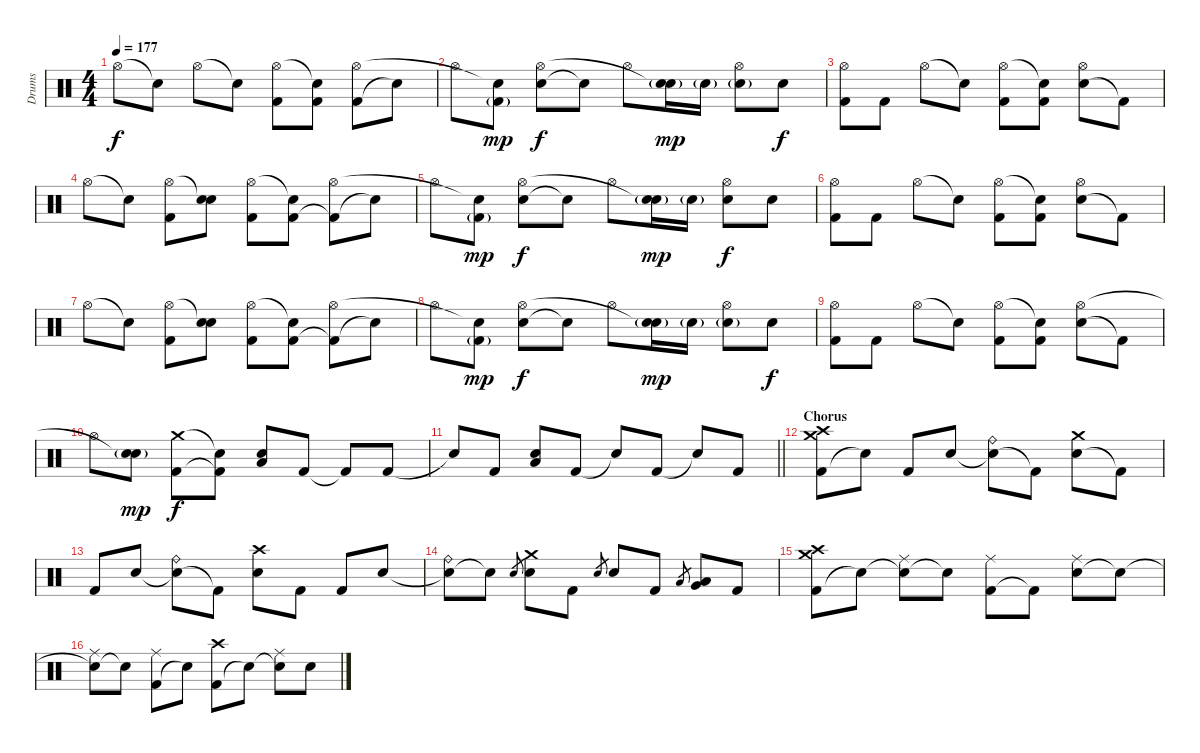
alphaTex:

\track ("Drums" "Drums") {instrument percussion}
\staff {score}
\articulation defaults
\ts (4 4)
\tempo 177
\clef neutral
\ks c "Hi-Hat (open)".8{dy f} "Snare (hit)"{t}.8 "Hi-Hat (open)".8 "Snare (hit)"{t}.8
("Kick (hit) 2" "Hi-Hat (open)").8 ("Kick (hit) 2" "Snare (hit)"{t}).8 ("Kick (hit) 2" "Hi-Hat (open)").8 "Snare (hit)"{t}.8 |
"Hi-Hat (open)".8 ("Kick (hit) 2"{g} "Snare (hit)"{t}).8{dy mp} ("Electric Snare (hit)" "Hi-Hat (open)").8{dy f} "Snare (hit)"{t}.8 "Hi-Hat (open)".8 ("Electric Snare (hit)"{g} "Snare (hit)"{t}).16{dy mp} "Electric Snare (hit)"{g}.16 ("Electric Snare (hit)"{g} "Hi-Hat (open)").8 "Electric Snare (hit)".8{dy f} |
("Kick (hit) 2" "Hi-Hat (open)").8 "Kick (hit) 2".8 "Hi-Hat (open)".8 "Snare (hit)"{t}.8 ("Kick (hit) 2" "Hi-Hat (open)").8 ("Kick (hit) 2" "Snare (hit)"{t}).8 ("Electric Snare (hit)" "Hi-Hat (open)").8 "Kick (hit) 2"{t}.8 |
"Hi-Hat (open)".8 "Snare (hit)"{t}.8 ("Kick (hit) 2" "Hi-Hat (open)").8 ("Electric Snare (hit)" "Snare (hit)"{t}).8 ("Kick (hit) 2" "Hi-Hat (open)").8 ("Kick (hit) 2" "Snare (hit)"{t}).8 ("Kick (hit) 2"{t} "Hi-Hat (open)").8 "Snare (hit)"{t}.8 |
"Hi-Hat (open)".8 ("Kick (hit) 2"{g} "Snare (hit)"{t}).8{dy mp} ("Electric Snare (hit)" "Hi-Hat (open)").8{dy f} "Snare (hit)"{t}.8 "Hi-Hat (open)".8 ("Electric Snare (hit)"{g} "Snare (hit)"{t}).16{dy mp} "Electric Snare (hit)"{g}.16 ("Electric Snare (hit)" "Hi-Hat (open)").8{dy f} "Electric Snare (hit)".8 |
("Kick (hit) 2" "Hi-Hat (open)").8 "Kick (hit) 2".8 "Hi-Hat (open)".8 "Snare (hit)"{t}.8 ("Kick (hit) 2" "Hi-Hat (open)").8 ("Kick (hit) 2" "Snare (hit)"{t}).8 ("Electric Snare (hit)" "Hi-Hat (open)").8 "Kick (hit) 2"{t}.8 |
"Hi-Hat (open)".8 "Snare (hit)"{t}.8 ("Kick (hit) 2" "Hi-Hat (open)").8 ("Electric Snare (hit)" "Snare (hit)"{t}).8 ("Kick (hit) 2" "Hi-Hat (open)").8 ("Kick (hit) 2" "Snare (hit)"{t}).8 ("Kick (hit) 2"{t} "Hi-Hat (open)").8 "Snare (hit)"{t}.8 |
"Hi-Hat (open)".8 ("Kick (hit) 2"{g} "Snare (hit)"{t}).8{dy mp} ("Electric Snare (hit)" "Hi-Hat (open)").8{dy f} "Snare (hit)"{t}.8 "Hi-Hat (open)".8 ("Electric Snare (hit)"{g} "Snare (hit)"{t}).16{dy mp} "Electric Snare (hit)"{g}.16 ("Electric Snare (hit)"{g} "Hi-Hat (open)").8 "Electric Snare (hit)".8{dy f} |
("Kick (hit) 2" "Hi-Hat (open)").8 "Kick (hit) 2".8 "Hi-Hat (open)".8 "Snare (hit)"{t}.8 ("Kick (hit) 2" "Hi-Hat (open)").8 ("Kick (hit) 2" "Snare (hit)"{t}).8 ("Electric Snare (hit)" "Hi-Hat (open)").8 "Kick (hit) 2"{t}.8 |
"Hi-Hat (open)".8 ("Electric Snare (hit)"{g} "Snare (hit)"{t}).8{dy mp} ("Kick (hit) 2" "Crash medium (hit)").8{dy f} ("Kick (hit) 2"{t} "Snare (hit)"{t}).8 ("Electric Snare (hit)" "Low Floor Tom (hit)").8 "Kick (hit) 2".8 "Kick (hit) 2"{t}.8 "Kick (hit) 2".8 |
\barLineRight lightlight "Snare (hit)"{t}.8 "Kick (hit) 2".8
("Electric Snare (hit)" "Low Floor Tom (hit)").8 "Kick (hit) 2".8 "Snare (hit)"{t}.8 "Kick (hit) 2".8 "Snare (hit)"{t}.8 "Kick (hit) 2".8 |
\section ("" "Chorus")
("Kick (hit) 2" "Crash medium (hit)" "Crash high (hit)").8 "Snare (hit)"{t}.8 "Kick (hit) 2".8 "Electric Snare (hit)".8 ("Snare (hit)"{t} "Ride (bell)").8 "Kick (hit) 2"{t}.8 ("Electric Snare (hit)" "Crash medium (hit)").8 "Kick (hit) 2"{t}.8 |
"Kick (hit) 2".8 "Electric Snare (hit)".8 ("Snare (hit)"{t} "Ride (bell)").8 "Kick (hit) 2"{t}.8 ("Electric Snare (hit)" "Crash high (hit)").8 "Kick (hit) 2".8 "Kick (hit) 2".8 "Electric Snare (hit)".8 |
("Snare (hit)"{t} "Ride (bell)").8 "Snare (hit)"{t}.8 "Electric Snare (hit)".8{gr} ("Electric Snare (hit)" "Crash medium (hit)").8 "Kick (hit) 2".8 "Electric Snare (hit)".8{gr} "Electric Snare (hit)".8 "Kick (hit) 2".8 "Low Tom (hit)".8{gr} ("Low Tom (hit)" "Very Low Tom (hit)").8 "Kick (hit) 2".8 |
("Kick (hit) 2" "Crash medium (hit)" "Crash high (hit)").8 "Snare (hit)"{t}.8 ("Snare (hit)"{t} "Ride (middle)").8 "Snare (hit)"{t}.8 ("Kick (hit) 2" "Ride (middle)").8 "Kick (hit) 2"{t}.8 ("Electric Snare (hit)" "Ride (middle)").8 "Snare (hit)"{t}.8 |
("Electric Snare (hit)"{t} "Ride (middle)").8 "Snare (hit)"{t}.8 ("Kick (hit) 2" "Ride (middle)").8 "Snare (hit)"{t}.8 ("Kick (hit) 2" "Crash high (hit)").8 "Snare (hit)"{t}.8 ("Snare (hit)"{t} "Ride (middle)").8 "Electric Snare (hit)".8
